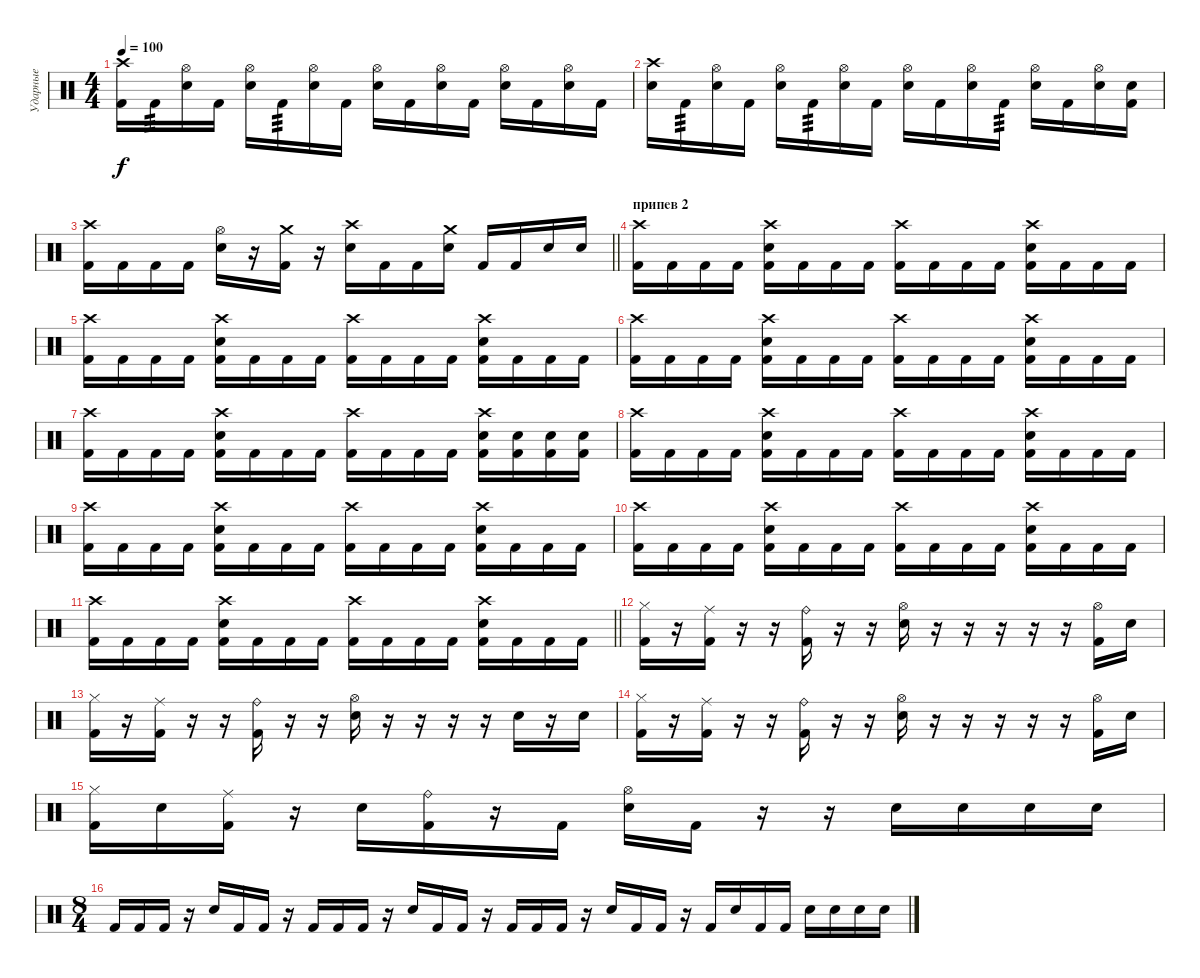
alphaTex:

\track ("Ударные" "Ударные") {instrument percussion}
\staff {score}
\articulation defaults
\ts (4 4)
\tempo 100
\clef neutral
\ks c
("Crash high (hit)" "Kick (hit) 2").16{dy f} "Kick (hit) 2".16{tp 3} ("Hi-Hat (open)" "Electric Snare (hit)").16 "Kick (hit) 2".16 ("Hi-Hat (open)" "Electric Snare (hit)").16 "Kick (hit) 2".16{tp 3} ("Hi-Hat (open)" "Electric Snare (hit)").16 "Kick (hit) 2".16 ("Hi-Hat (open)" "Electric Snare (hit)").16 "Kick (hit) 2".16 ("Hi-Hat (open)" "Electric Snare (hit)").16 "Kick (hit) 2".16 ("Hi-Hat (open)" "Electric Snare (hit)").16 "Kick (hit) 2".16 ("Hi-Hat (open)" "Electric Snare (hit)").16 "Kick (hit) 2".16 |
("Crash high (hit)" "Electric Snare (hit)").16 "Kick (hit) 2".16{tp 3} ("Hi-Hat (open)" "Electric Snare (hit)").16 "Kick (hit) 2".16 ("Hi-Hat (open)" "Electric Snare (hit)").16 "Kick (hit) 2".16{tp 3} ("Hi-Hat (open)" "Electric Snare (hit)").16 "Kick (hit) 2".16 ("Hi-Hat (open)" "Electric Snare (hit)").16 "Kick (hit) 2".16 ("Hi-Hat (open)" "Electric Snare (hit)").16 "Kick (hit) 2".16{tp 3} ("Hi-Hat (open)" "Electric Snare (hit)").16 "Kick (hit) 2".16 ("Hi-Hat (open)" "Electric Snare (hit)").16 ("Electric Snare (hit)" "Kick (hit) 2").16 |
\barLineRight lightlight
("Crash high (hit)" "Kick (hit) 2").16 "Kick (hit) 2".16 "Kick (hit) 2".16 "Kick (hit) 2".16 ("Hi-Hat (open)" "Electric Snare (hit)").16 r.16 ("Crash medium (hit)" "Kick (hit) 2").16 r.16 ("Crash high (hit)" "Electric Snare (hit)").16 "Kick (hit) 2".16 "Kick (hit) 2".16 ("Crash medium (hit)" "Electric Snare (hit)").16 "Kick (hit) 2".16 "Kick (hit) 2".16 "Electric Snare (hit)".16 "Electric Snare (hit)".16 |
\section ("" "припев 2")
("Crash high (hit)" "Kick (hit) 2").16 "Kick (hit) 2".16 "Kick (hit) 2".16 "Kick (hit) 2".16 ("Crash high (hit)" "Electric Snare (hit)" "Kick (hit) 2").16 "Kick (hit) 2".16 "Kick (hit) 2".16 "Kick (hit) 2".16 ("Crash high (hit)" "Kick (hit) 2").16 "Kick (hit) 2".16 "Kick (hit) 2".16 "Kick (hit) 2".16 ("Crash high (hit)" "Electric Snare (hit)" "Kick (hit) 2").16 "Kick (hit) 2".16 "Kick (hit) 2".16 "Kick (hit) 2".16 |
("Crash high (hit)" "Kick (hit) 2").16 "Kick (hit) 2".16 "Kick (hit) 2".16 "Kick (hit) 2".16 ("Crash high (hit)" "Electric Snare (hit)" "Kick (hit) 2").16 "Kick (hit) 2".16 "Kick (hit) 2".16 "Kick (hit) 2".16 ("Crash high (hit)" "Kick (hit) 2").16 "Kick (hit) 2".16 "Kick (hit) 2".16 "Kick (hit) 2".16 ("Crash high (hit)" "Electric Snare (hit)" "Kick (hit) 2").16 "Kick (hit) 2".16 "Kick (hit) 2".16 "Kick (hit) 2".16 |
("Crash high (hit)" "Kick (hit) 2").16 "Kick (hit) 2".16 "Kick (hit) 2".16 "Kick (hit) 2".16 ("Crash high (hit)" "Electric Snare (hit)" "Kick (hit) 2").16 "Kick (hit) 2".16 "Kick (hit) 2".16 "Kick (hit) 2".16 ("Crash high (hit)" "Kick (hit) 2").16 "Kick (hit) 2".16 "Kick (hit) 2".16 "Kick (hit) 2".16 ("Crash high (hit)" "Electric Snare (hit)" "Kick (hit) 2").16 "Kick (hit) 2".16 "Kick (hit) 2".16 "Kick (hit) 2".16 |
("Crash high (hit)" "Kick (hit) 2").16 "Kick (hit) 2".16 "Kick (hit) 2".16 "Kick (hit) 2".16 ("Crash high (hit)" "Electric Snare (hit)" "Kick (hit) 2").16 "Kick (hit) 2".16 "Kick (hit) 2".16 "Kick (hit) 2".16 ("Crash high (hit)" "Kick (hit) 2").16 "Kick (hit) 2".16 "Kick (hit) 2".16 "Kick (hit) 2".16 ("Crash high (hit)" "Electric Snare (hit)" "Kick (hit) 2").16 ("Electric Snare (hit)" "Kick (hit) 2").16 ("Electric Snare (hit)" "Kick (hit) 2").16 ("Electric Snare (hit)" "Kick (hit) 2").16 |
("Crash high (hit)" "Kick (hit) 2").16 "Kick (hit) 2".16 "Kick (hit) 2".16 "Kick (hit) 2".16 ("Crash high (hit)" "Electric Snare (hit)" "Kick (hit) 2").16 "Kick (hit) 2".16 "Kick (hit) 2".16 "Kick (hit) 2".16 ("Crash high (hit)" "Kick (hit) 2").16 "Kick (hit) 2".16 "Kick (hit) 2".16 "Kick (hit) 2".16 ("Crash high (hit)" "Electric Snare (hit)" "Kick (hit) 2").16 "Kick (hit) 2".16 "Kick (hit) 2".16 "Kick (hit) 2".16 |
("Crash high (hit)" "Kick (hit) 2").16 "Kick (hit) 2".16 "Kick (hit) 2".16 "Kick (hit) 2".16 ("Crash high (hit)" "Electric Snare (hit)" "Kick (hit) 2").16 "Kick (hit) 2".16 "Kick (hit) 2".16 "Kick (hit) 2".16 ("Crash high (hit)" "Kick (hit) 2").16 "Kick (hit) 2".16 "Kick (hit) 2".16 "Kick (hit) 2".16 ("Crash high (hit)" "Electric Snare (hit)" "Kick (hit) 2").16 "Kick (hit) 2".16 "Kick (hit) 2".16 "Kick (hit) 2".16 |
("Crash high (hit)" "Kick (hit) 2").16 "Kick (hit) 2".16 "Kick (hit) 2".16 "Kick (hit) 2".16 ("Crash high (hit)" "Electric Snare (hit)" "Kick (hit) 2").16 "Kick (hit) 2".16 "Kick (hit) 2".16 "Kick (hit) 2".16 ("Crash high (hit)" "Kick (hit) 2").16 "Kick (hit) 2".16 "Kick (hit) 2".16 "Kick (hit) 2".16 ("Crash high (hit)" "Electric Snare (hit)" "Kick (hit) 2").16 "Kick (hit) 2".16 "Kick (hit) 2".16 "Kick (hit) 2".16 |
\barLineRight lightlight
("Crash high (hit)" "Kick (hit) 2").16 "Kick (hit) 2".16 "Kick (hit) 2".16 "Kick (hit) 2".16 ("Crash high (hit)" "Electric Snare (hit)" "Kick (hit) 2").16 "Kick (hit) 2".16 "Kick (hit) 2".16 "Kick (hit) 2".16 ("Crash high (hit)" "Kick (hit) 2").16 "Kick (hit) 2".16 "Kick (hit) 2".16 "Kick (hit) 2".16 ("Crash high (hit)" "Electric Snare (hit)" "Kick (hit) 2").16 "Kick (hit) 2".16 "Kick (hit) 2".16 "Kick (hit) 2".16 |
("Hi-Hat (closed)" "Kick (hit) 2").16 r.16 ("Ride (middle)" "Kick (hit) 2").16 r.16 r.16 ("Ride (bell)" "Kick (hit) 2").16 r.16 r.16 ("Hi-Hat (open)" "Electric Snare (hit)").16 r.16 r.16 r.16 r.16 r.16 ("Hi-Hat (open)" "Kick (hit) 2").16 "Electric Snare (hit)".16 |
("Hi-Hat (closed)" "Kick (hit) 2").16 r.16 ("Ride (middle)" "Kick (hit) 2").16 r.16 r.16 ("Ride (bell)" "Kick (hit) 2").16 r.16 r.16 ("Hi-Hat (open)" "Electric Snare (hit)").16 r.16 r.16 r.16 r.16 "Electric Snare (hit)".16 r.16 "Electric Snare (hit)".16 |
("Hi-Hat (closed)" "Kick (hit) 2").16 r.16 ("Ride (middle)" "Kick (hit) 2").16 r.16 r.16 ("Ride (bell)" "Kick (hit) 2").16 r.16 r.16 ("Hi-Hat (open)" "Electric Snare (hit)").16 r.16 r.16 r.16 r.16 r.16 ("Hi-Hat (open)" "Kick (hit) 2").16 "Electric Snare (hit)".16 |
("Hi-Hat (closed)" "Kick (hit) 2").16 "Electric Snare (hit)".16 ("Ride (middle)" "Kick (hit) 2").16 r.16 "Electric Snare (hit)".16 ("Ride (bell)" "Kick (hit) 2").16 r.16 "Kick (hit) 2".16 ("Hi-Hat (open)" "Electric Snare (hit)").16 "Kick (hit) 2".16 r.16 r.16 "Electric Snare (hit)".16 "Electric Snare (hit)".16 "Electric Snare (hit)".16 "Electric Snare (hit)".16 |
\ts (8 4)
"Kick (hit) 2".16 "Kick (hit) 2".16 "Kick (hit) 2".16 r.16 "Electric Snare (hit)".16 "Kick (hit) 2".16 "Kick (hit) 2".16 r.16 "Kick (hit) 2".16 "Kick (hit) 2".16 "Kick (hit) 2".16 r.16 "Electric Snare (hit)".16 "Kick (hit) 2".16 "Kick (hit) 2".16 r.16 "Kick (hit) 2".16 "Kick (hit) 2".16 "Kick (hit) 2".16 r.16 "Electric Snare (hit)".16 "Kick (hit) 2".16 "Kick (hit) 2".16 r.16 "Kick (hit) 2".16 "Electric Snare (hit)".16 "Kick (hit) 2".16 "Kick (hit) 2".16 "Electric Snare (hit)".16 "Electric Snare (hit)".16 "Electric Snare (hit)".16 "Electric Snare (hit)".16
